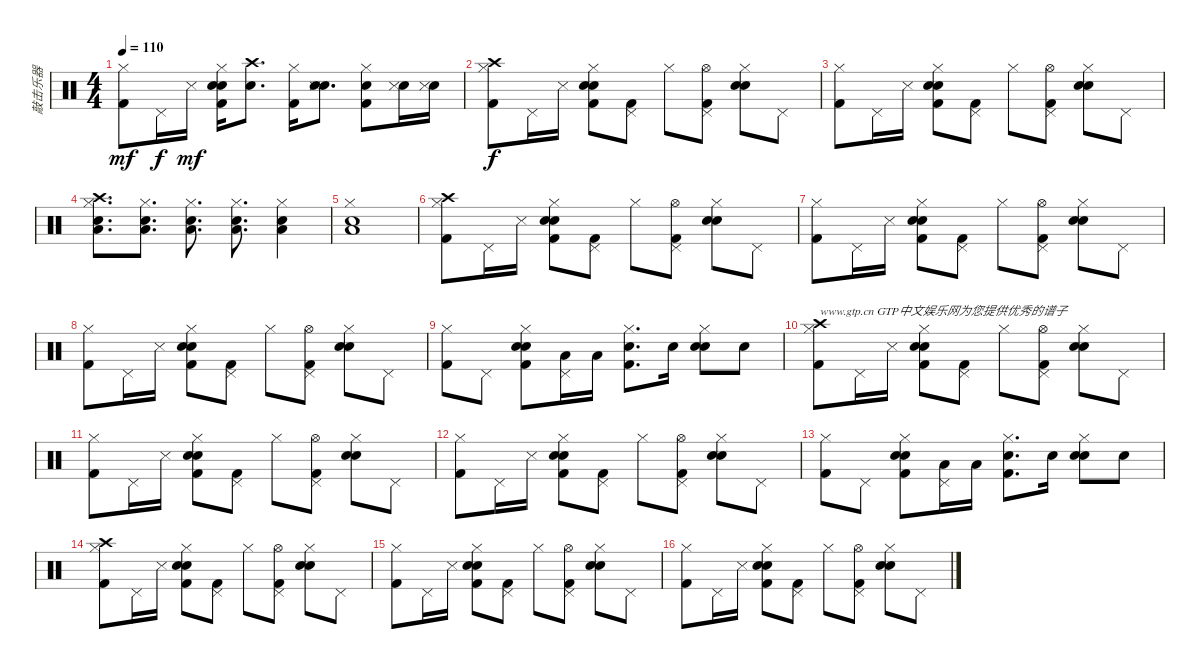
\track ("敲击乐器" "敲击乐器") {instrument percussion}
\staff {score}
\articulation defaults
\ts (4 4)
\tempo 110
\clef neutral
\ks c
("Hi-Hat (closed)" "Kick (hit) 2").8{dy mf} "Pedal Hi-Hat (hit)".16{dy f} "Snare (side stick) 3".16{dy mf} ("Hand Clap (hit)" "Electric Snare (hit)" "Hi-Hat (closed)" "Kick (hit) 2").16 ("Crash high (hit)" "Snare (hit) 2").8{d} ("Hi-Hat (closed)" "Kick (hit) 2").16 ("Hand Clap (hit)" "Snare (side stick) 3" "Electric Snare (hit)").8{d} ("Hi-Hat (closed)" "Electric Snare (hit)" "Kick (hit) 2").8 ("Hand Clap (hit)" "Snare (side stick) 3").16 ("Hand Clap (hit)" "Snare (side stick) 3").16 |
("Crash high (hit)" "Hi-Hat (closed)" "Kick (hit) 2").8{dy f} "Pedal Hi-Hat (hit)".16 "Snare (side stick) 3".16 ("Hand Clap (hit)" "Electric Snare (hit)" "Hi-Hat (closed)" "Kick (hit) 2").8 ("Pedal Hi-Hat (hit)" "Kick (hit) 2").8 "Hi-Hat (closed)".8 ("Hi-Hat (open)" "Pedal Hi-Hat (hit)" "Kick (hit) 2").8 ("Hand Clap (hit)" "Electric Snare (hit)" "Hi-Hat (closed)").8 "Pedal Hi-Hat (hit)".8 |
("Hi-Hat (closed)" "Kick (hit) 2").8 "Pedal Hi-Hat (hit)".16 "Snare (side stick) 3".16 ("Hand Clap (hit)" "Electric Snare (hit)" "Hi-Hat (closed)" "Kick (hit) 2").8 ("Pedal Hi-Hat (hit)" "Kick (hit) 2").8 "Hi-Hat (closed)".8 ("Hi-Hat (open)" "Pedal Hi-Hat (hit)" "Kick (hit) 2").8 ("Hand Clap (hit)" "Electric Snare (hit)" "Hi-Hat (closed)").8 "Pedal Hi-Hat (hit)".8 |
("Crash high (hit)" "Hi-Hat (closed)" "Electric Snare (hit)" "Low Tom (hit)").8{d} ("Hi-Hat (closed)" "Snare (hit) 2" "Low Tom (hit)").8{d} ("Hi-Hat (closed)" "Electric Snare (hit)" "Low Tom (hit)").8{d} ("Hi-Hat (closed)" "Snare (hit) 2" "Low Tom (hit)").8{d} ("Hi-Hat (closed)" "Electric Snare (hit)" "Low Tom (hit)").4 |
("Hi-Hat (closed)" "Electric Snare (hit)" "Low Tom (hit)").1 |
("Crash high (hit)" "Hi-Hat (closed)" "Kick (hit) 2").8 "Pedal Hi-Hat (hit)".16 "Snare (side stick) 3".16 ("Hand Clap (hit)" "Electric Snare (hit)" "Hi-Hat (closed)" "Kick (hit) 2").8 ("Pedal Hi-Hat (hit)" "Kick (hit) 2").8 "Hi-Hat (closed)".8 ("Hi-Hat (open)" "Pedal Hi-Hat (hit)" "Kick (hit) 2").8 ("Hand Clap (hit)" "Electric Snare (hit)" "Hi-Hat (closed)").8 "Pedal Hi-Hat (hit)".8 |
("Hi-Hat (closed)" "Kick (hit) 2").8 "Pedal Hi-Hat (hit)".16 "Snare (side stick) 3".16 ("Hand Clap (hit)" "Electric Snare (hit)" "Hi-Hat (closed)" "Kick (hit) 2").8 ("Pedal Hi-Hat (hit)" "Kick (hit) 2").8 "Hi-Hat (closed)".8 ("Hi-Hat (open)" "Pedal Hi-Hat (hit)" "Kick (hit) 2").8 ("Hand Clap (hit)" "Electric Snare (hit)" "Hi-Hat (closed)").8 "Pedal Hi-Hat (hit)".8 |
("Hi-Hat (closed)" "Kick (hit) 2").8 "Pedal Hi-Hat (hit)".16 "Snare (side stick) 3".16 ("Hand Clap (hit)" "Electric Snare (hit)" "Hi-Hat (closed)" "Kick (hit) 2").8 ("Pedal Hi-Hat (hit)" "Kick (hit) 2").8 "Hi-Hat (closed)".8 ("Hi-Hat (open)" "Pedal Hi-Hat (hit)" "Kick (hit) 2").8 ("Hand Clap (hit)" "Electric Snare (hit)" "Hi-Hat (closed)").8 "Pedal Hi-Hat (hit)".8 |
("Hi-Hat (closed)" "Kick (hit) 2").8 "Pedal Hi-Hat (hit)".8 ("Hand Clap (hit)" "Electric Snare (hit)" "Hi-Hat (closed)" "Kick (hit) 2").8 ("Pedal Hi-Hat (hit)" "Low Tom (hit)").16 "Low Tom (hit)".16 ("Electric Snare (hit)" "Hi-Hat (closed)" "Kick (hit) 2").8{d} "Snare (hit) 2".16 ("Hand Clap (hit)" "Electric Snare (hit)" "Hi-Hat (closed)").8 "Snare (hit) 2".8 |
("Crash high (hit)" "Hi-Hat (closed)" "Kick (hit) 2").8{txt "www.gtp.cn GTP中文娱乐网为您提供优秀的谱子"} "Pedal Hi-Hat (hit)".16 "Snare (side stick) 3".16 ("Hand Clap (hit)" "Electric Snare (hit)" "Hi-Hat (closed)" "Kick (hit) 2").8 ("Pedal Hi-Hat (hit)" "Kick (hit) 2").8 "Hi-Hat (closed)".8 ("Hi-Hat (open)" "Pedal Hi-Hat (hit)" "Kick (hit) 2").8 ("Hand Clap (hit)" "Electric Snare (hit)" "Hi-Hat (closed)").8 "Pedal Hi-Hat (hit)".8 |
("Hi-Hat (closed)" "Kick (hit) 2").8 "Pedal Hi-Hat (hit)".16 "Snare (side stick) 3".16 ("Hand Clap (hit)" "Electric Snare (hit)" "Hi-Hat (closed)" "Kick (hit) 2").8 ("Pedal Hi-Hat (hit)" "Kick (hit) 2").8 "Hi-Hat (closed)".8 ("Hi-Hat (open)" "Pedal Hi-Hat (hit)" "Kick (hit) 2").8 ("Hand Clap (hit)" "Electric Snare (hit)" "Hi-Hat (closed)").8 "Pedal Hi-Hat (hit)".8 |
("Hi-Hat (closed)" "Kick (hit) 2").8 "Pedal Hi-Hat (hit)".16 "Snare (side stick) 3".16 ("Hand Clap (hit)" "Electric Snare (hit)" "Hi-Hat (closed)" "Kick (hit) 2").8 ("Pedal Hi-Hat (hit)" "Kick (hit) 2").8 "Hi-Hat (closed)".8 ("Hi-Hat (open)" "Pedal Hi-Hat (hit)" "Kick (hit) 2").8 ("Hand Clap (hit)" "Electric Snare (hit)" "Hi-Hat (closed)").8 "Pedal Hi-Hat (hit)".8 |
("Hi-Hat (closed)" "Kick (hit) 2").8 "Pedal Hi-Hat (hit)".8 ("Hand Clap (hit)" "Electric Snare (hit)" "Hi-Hat (closed)" "Kick (hit) 2").8 ("Pedal Hi-Hat (hit)" "Low Tom (hit)").16 "Low Tom (hit)".16 ("Electric Snare (hit)" "Hi-Hat (closed)" "Kick (hit) 2").8{d} "Snare (hit) 2".16 ("Hand Clap (hit)" "Electric Snare (hit)" "Hi-Hat (closed)").8 "Snare (hit) 2".8 |
("Crash high (hit)" "Hi-Hat (closed)" "Kick (hit) 2").8 "Pedal Hi-Hat (hit)".16 "Snare (side stick) 3".16 ("Hand Clap (hit)" "Electric Snare (hit)" "Hi-Hat (closed)" "Kick (hit) 2").8 ("Pedal Hi-Hat (hit)" "Kick (hit) 2").8 "Hi-Hat (closed)".8 ("Hi-Hat (open)" "Pedal Hi-Hat (hit)" "Kick (hit) 2").8 ("Hand Clap (hit)" "Electric Snare (hit)" "Hi-Hat (closed)").8 "Pedal Hi-Hat (hit)".8 |
("Hi-Hat (closed)" "Kick (hit) 2").8 "Pedal Hi-Hat (hit)".16 "Snare (side stick) 3".16 ("Hand Clap (hit)" "Electric Snare (hit)" "Hi-Hat (closed)" "Kick (hit) 2").8 ("Pedal Hi-Hat (hit)" "Kick (hit) 2").8 "Hi-Hat (closed)".8 ("Hi-Hat (open)" "Pedal Hi-Hat (hit)" "Kick (hit) 2").8 ("Hand Clap (hit)" "Electric Snare (hit)" "Hi-Hat (closed)").8 "Pedal Hi-Hat (hit)".8 |
("Hi-Hat (closed)" "Kick (hit) 2").8 "Pedal Hi-Hat (hit)".16 "Snare (side stick) 3".16 ("Hand Clap (hit)" "Electric Snare (hit)" "Hi-Hat (closed)" "Kick (hit) 2").8 ("Pedal Hi-Hat (hit)" "Kick (hit) 2").8 "Hi-Hat (closed)".8 ("Hi-Hat (open)" "Pedal Hi-Hat (hit)" "Kick (hit) 2").8 ("Hand Clap (hit)" "Electric Snare (hit)" "Hi-Hat (closed)").8 "Pedal Hi-Hat (hit)".8
